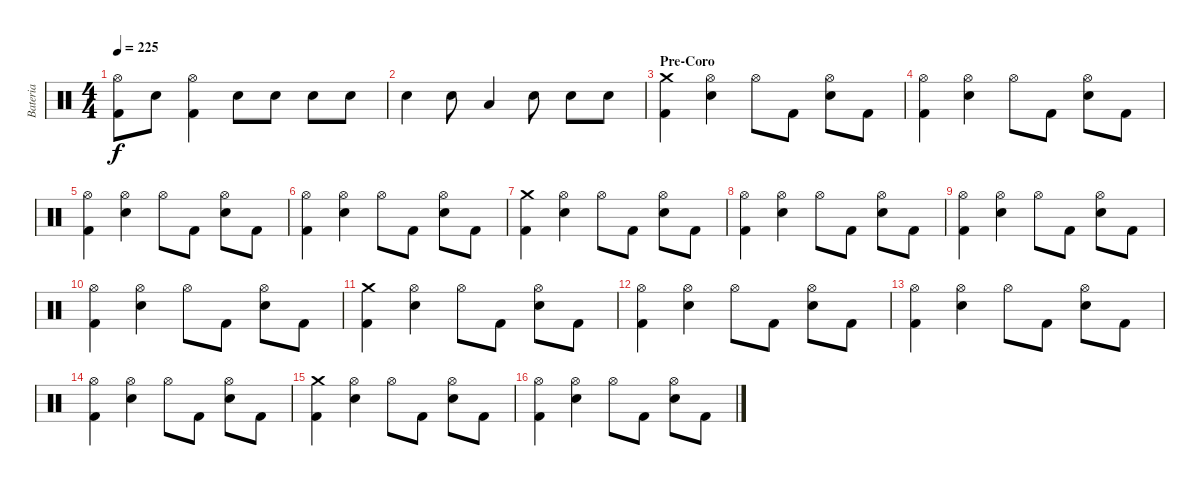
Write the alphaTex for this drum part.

\track ("Bateria" "Bateria") {instrument percussion}
\staff {score}
\articulation defaults
\ts (4 4)
\tempo 225
\clef neutral
\ks c
("Hi-Hat (open)" "Kick (hit) 2").8{dy f} "Snare (hit) 2".8 ("Kick (hit) 2" "Hi-Hat (open)").4 "Snare (hit) 2".8 "Snare (hit) 2".8 "Snare (hit) 2".8 "Snare (hit) 2".8 |
"Snare (hit) 2".4 "Snare (hit) 2".8 "Low Tom (hit)".4 "Snare (hit) 2".8 "Snare (hit) 2".8 "Snare (hit) 2".8 |
\section ("" "Pre-Coro")
("Crash medium (hit)" "Kick (hit) 2").4 ("Snare (hit) 2" "Hi-Hat (open)").4 "Hi-Hat (open)".8 "Kick (hit) 2".8 ("Hi-Hat (open)" "Snare (hit) 2").8 "Kick (hit) 2".8 |
("Hi-Hat (open)" "Kick (hit) 2").4 ("Snare (hit) 2" "Hi-Hat (open)").4 "Hi-Hat (open)".8 "Kick (hit) 2".8 ("Hi-Hat (open)" "Snare (hit) 2").8 "Kick (hit) 2".8 |
("Hi-Hat (open)" "Kick (hit) 2").4 ("Snare (hit) 2" "Hi-Hat (open)").4 "Hi-Hat (open)".8 "Kick (hit) 2".8 ("Hi-Hat (open)" "Snare (hit) 2").8 "Kick (hit) 2".8 |
("Hi-Hat (open)" "Kick (hit) 2").4 ("Snare (hit) 2" "Hi-Hat (open)").4 "Hi-Hat (open)".8 "Kick (hit) 2".8 ("Hi-Hat (open)" "Snare (hit) 2").8 "Kick (hit) 2".8 |
("Crash medium (hit)" "Kick (hit) 2").4 ("Snare (hit) 2" "Hi-Hat (open)").4 "Hi-Hat (open)".8 "Kick (hit) 2".8 ("Hi-Hat (open)" "Snare (hit) 2").8 "Kick (hit) 2".8 |
("Hi-Hat (open)" "Kick (hit) 2").4 ("Snare (hit) 2" "Hi-Hat (open)").4 "Hi-Hat (open)".8 "Kick (hit) 2".8 ("Hi-Hat (open)" "Snare (hit) 2").8 "Kick (hit) 2".8 |
("Hi-Hat (open)" "Kick (hit) 2").4 ("Snare (hit) 2" "Hi-Hat (open)").4 "Hi-Hat (open)".8 "Kick (hit) 2".8 ("Hi-Hat (open)" "Snare (hit) 2").8 "Kick (hit) 2".8 |
("Hi-Hat (open)" "Kick (hit) 2").4 ("Snare (hit) 2" "Hi-Hat (open)").4 "Hi-Hat (open)".8 "Kick (hit) 2".8 ("Hi-Hat (open)" "Snare (hit) 2").8 "Kick (hit) 2".8 |
("Crash medium (hit)" "Kick (hit) 2").4 ("Snare (hit) 2" "Hi-Hat (open)").4 "Hi-Hat (open)".8 "Kick (hit) 2".8 ("Hi-Hat (open)" "Snare (hit) 2").8 "Kick (hit) 2".8 |
("Hi-Hat (open)" "Kick (hit) 2").4 ("Snare (hit) 2" "Hi-Hat (open)").4 "Hi-Hat (open)".8 "Kick (hit) 2".8 ("Hi-Hat (open)" "Snare (hit) 2").8 "Kick (hit) 2".8 |
("Hi-Hat (open)" "Kick (hit) 2").4 ("Snare (hit) 2" "Hi-Hat (open)").4 "Hi-Hat (open)".8 "Kick (hit) 2".8 ("Hi-Hat (open)" "Snare (hit) 2").8 "Kick (hit) 2".8 |
("Hi-Hat (open)" "Kick (hit) 2").4 ("Snare (hit) 2" "Hi-Hat (open)").4 "Hi-Hat (open)".8 "Kick (hit) 2".8 ("Hi-Hat (open)" "Snare (hit) 2").8 "Kick (hit) 2".8 |
("Crash medium (hit)" "Kick (hit) 2").4 ("Snare (hit) 2" "Hi-Hat (open)").4 "Hi-Hat (open)".8 "Kick (hit) 2".8 ("Hi-Hat (open)" "Snare (hit) 2").8 "Kick (hit) 2".8 |
("Hi-Hat (open)" "Kick (hit) 2").4 ("Snare (hit) 2" "Hi-Hat (open)").4 "Hi-Hat (open)".8 "Kick (hit) 2".8 ("Hi-Hat (open)" "Snare (hit) 2").8 "Kick (hit) 2".8
